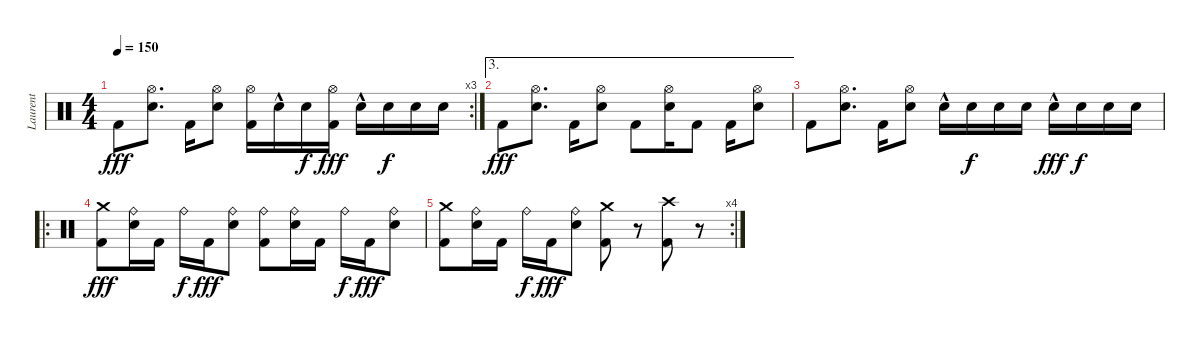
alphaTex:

\track ("Laurent" "Laurent") {instrument percussion}
\staff {score}
\articulation defaults
\rc 3
\ts (4 4)
\tempo 150
\clef neutral
\ks c "Kick (hit) 2".8{dy fff}
("Hi-Hat (open)" "Electric Snare (hit)").8{d} "Kick (hit) 2".16 ("Hi-Hat (open)" "Electric Snare (hit)").8 ("Hi-Hat (open)" "Kick (hit) 2").16 "Electric Snare (hit)"{hac}.16 "Electric Snare (hit)".16{dy f} ("Hi-Hat (open)" "Kick (hit) 2").16{dy fff} "Electric Snare (hit)"{hac}.16 "Electric Snare (hit)".16{dy f} "Electric Snare (hit)".16 "Electric Snare (hit)".16 |
\ae 3 "Kick (hit) 2".8{dy fff}
("Hi-Hat (open)" "Electric Snare (hit)").8{d} "Kick (hit) 2".16 ("Hi-Hat (open)" "Electric Snare (hit)").8 "Kick (hit) 2".8 ("Hi-Hat (open)" "Electric Snare (hit)").16 "Kick (hit) 2".8 "Kick (hit) 2".16 ("Hi-Hat (open)" "Electric Snare (hit)").8 |
"Kick (hit) 2".8 ("Hi-Hat (open)" "Electric Snare (hit)").8{d} "Kick (hit) 2".16 ("Hi-Hat (open)" "Electric Snare (hit)").8 "Electric Snare (hit)"{hac}.16 "Electric Snare (hit)".16{dy f} "Electric Snare (hit)".16 "Electric Snare (hit)".16 "Electric Snare (hit)"{hac}.16{dy fff} "Electric Snare (hit)".16{dy f} "Electric Snare (hit)".16 "Electric Snare (hit)".16 |
\ro
("Crash medium (hit)" "Kick (hit) 2").8{dy fff} ("Ride (bell)" "Electric Snare (hit)").16 "Kick (hit) 2".16 "Ride (bell)".16{dy f} "Kick (hit) 2".16{dy fff} ("Ride (bell)" "Electric Snare (hit)").8 ("Ride (bell)" "Kick (hit) 2").8 ("Ride (bell)" "Electric Snare (hit)").16 "Kick (hit) 2".16 "Ride (bell)".16{dy f} "Kick (hit) 2".16{dy fff} ("Ride (bell)" "Electric Snare (hit)").8 |
\rc 4
("Crash medium (hit)" "Kick (hit) 2").8 ("Ride (bell)" "Electric Snare (hit)").16 "Kick (hit) 2".16 "Ride (bell)".16{dy f} "Kick (hit) 2".16{dy fff} ("Ride (bell)" "Electric Snare (hit)").8 ("Crash medium (hit)" "Kick (hit) 2").8 r.8 ("Crash high (hit)" "Kick (hit) 2").8 r.8
